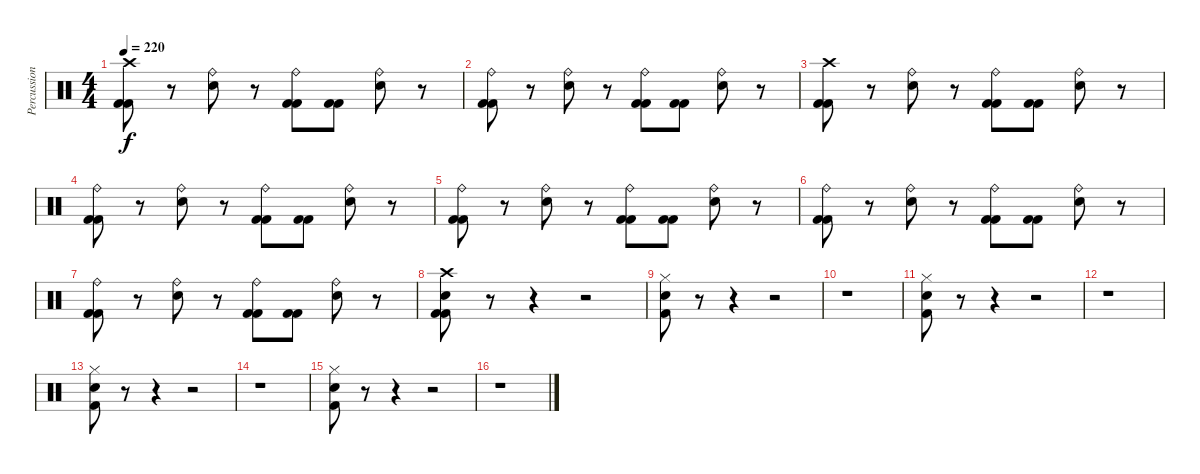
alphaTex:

\track ("Percussion" "Percussion") {instrument percussion}
\staff {score}
\articulation defaults
\ts (4 4)
\tempo 220
\clef neutral
\ks c
("Crash high (hit)" "Kick (hit) 2" "Kick (hit) 2").8{dy f} r.8 ("Ride (bell)" "Electric Snare (hit)").8 r.8 ("Ride (bell)" "Kick (hit) 2" "Kick (hit) 2").8 ("Kick (hit) 2" "Kick (hit) 2").8 ("Ride (bell)" "Electric Snare (hit)").8 r.8 |
("Ride (bell)" "Kick (hit) 2" "Kick (hit) 2").8 r.8 ("Ride (bell)" "Electric Snare (hit)").8 r.8 ("Ride (bell)" "Kick (hit) 2" "Kick (hit) 2").8 ("Kick (hit) 2" "Kick (hit) 2").8 ("Ride (bell)" "Electric Snare (hit)").8 r.8 |
("Crash high (hit)" "Kick (hit) 2" "Kick (hit) 2").8 r.8 ("Ride (bell)" "Electric Snare (hit)").8 r.8 ("Ride (bell)" "Kick (hit) 2" "Kick (hit) 2").8 ("Kick (hit) 2" "Kick (hit) 2").8 ("Ride (bell)" "Electric Snare (hit)").8 r.8 |
("Ride (bell)" "Kick (hit) 2" "Kick (hit) 2").8 r.8 ("Ride (bell)" "Electric Snare (hit)").8 r.8 ("Ride (bell)" "Kick (hit) 2" "Kick (hit) 2").8 ("Kick (hit) 2" "Kick (hit) 2").8 ("Ride (bell)" "Electric Snare (hit)").8 r.8 |
("Ride (bell)" "Kick (hit) 2" "Kick (hit) 2").8 r.8 ("Ride (bell)" "Electric Snare (hit)").8 r.8 ("Ride (bell)" "Kick (hit) 2" "Kick (hit) 2").8 ("Kick (hit) 2" "Kick (hit) 2").8 ("Ride (bell)" "Electric Snare (hit)").8 r.8 |
("Ride (bell)" "Kick (hit) 2" "Kick (hit) 2").8 r.8 ("Ride (bell)" "Electric Snare (hit)").8 r.8 ("Ride (bell)" "Kick (hit) 2" "Kick (hit) 2").8 ("Kick (hit) 2" "Kick (hit) 2").8 ("Ride (bell)" "Electric Snare (hit)").8 r.8 |
("Ride (bell)" "Kick (hit) 2" "Kick (hit) 2").8 r.8 ("Ride (bell)" "Electric Snare (hit)").8 r.8 ("Ride (bell)" "Kick (hit) 2" "Kick (hit) 2").8 ("Kick (hit) 2" "Kick (hit) 2").8 ("Ride (bell)" "Electric Snare (hit)").8 r.8 |
("Crash high (hit)" "Electric Snare (hit)" "Kick (hit) 2" "Kick (hit) 2").8 r.8 r.4 r.2 |
("Hi-Hat (closed)" "Electric Snare (hit)" "Kick (hit) 2").8 r.8 r.4 r.2 |
r.1 |
("Hi-Hat (closed)" "Electric Snare (hit)" "Kick (hit) 2").8 r.8 r.4 r.2 |
r.1 |
("Hi-Hat (closed)" "Electric Snare (hit)" "Kick (hit) 2").8 r.8 r.4 r.2 |
r.1 |
("Hi-Hat (closed)" "Electric Snare (hit)" "Kick (hit) 2").8 r.8 r.4 r.2 |
r.1
